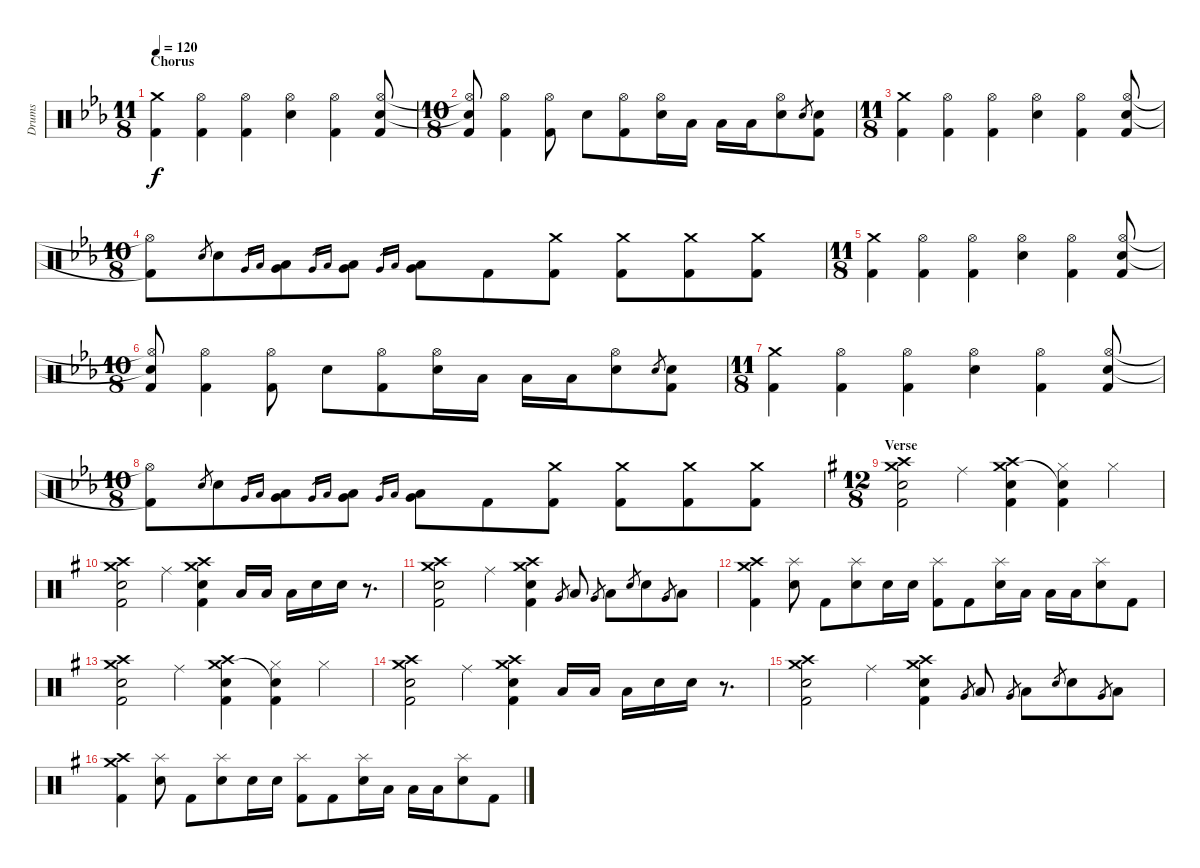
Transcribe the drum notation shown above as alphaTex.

\track ("Drums" "Drums") {instrument percussion}
\staff {score}
\articulation defaults
\ts (11 8)
\section ("" "Chorus")
\tempo 120
\clef neutral
\ks eb
("Crash medium (hit)" "Kick (hit) 2").4{dy f} ("Hi-Hat (open)" "Kick (hit) 2").4 ("Hi-Hat (open)" "Kick (hit) 2").4 ("Hi-Hat (open)" "Electric Snare (hit)").4 ("Hi-Hat (open)" "Kick (hit) 2").4 ("Hi-Hat (open)" "Electric Snare (hit)" "Kick (hit) 2").8 |
\ts (10 8)
("Hi-Hat (open)"{t} "Snare (hit)"{t} "Kick (hit) 2").8 ("Hi-Hat (open)" "Kick (hit) 2").4 ("Hi-Hat (open)" "Kick (hit) 2").8 "Electric Snare (hit)".8 ("Hi-Hat (open)" "Kick (hit) 2").8 ("Hi-Hat (open)" "Electric Snare (hit)").16 "Low Tom (hit)".16 "Low Tom (hit)".16 "Low Tom (hit)".16 ("Hi-Hat (open)" "Electric Snare (hit)").8 "Electric Snare (hit)".8{gr} ("Electric Snare (hit)" "Kick (hit) 2").8 |
\ts (11 8)
("Crash medium (hit)" "Kick (hit) 2").4 ("Hi-Hat (open)" "Kick (hit) 2").4 ("Hi-Hat (open)" "Kick (hit) 2").4 ("Hi-Hat (open)" "Electric Snare (hit)").4 ("Hi-Hat (open)" "Kick (hit) 2").4 ("Hi-Hat (open)" "Electric Snare (hit)" "Kick (hit) 2").8 |
\ts (10 8)
("Hi-Hat (open)"{t} "Kick (hit) 2"{t}).8 "Electric Snare (hit)".8{gr} "Electric Snare (hit)".8 "Very Low Tom (hit)".16{gr} "Low Tom (hit)".16{gr} ("Low Tom (hit)" "Very Low Tom (hit)").8 "Very Low Tom (hit)".16{gr} "Low Tom (hit)".16{gr} ("Low Tom (hit)" "Very Low Tom (hit)").8 "Very Low Tom (hit)".16{gr} "Low Tom (hit)".16{gr} ("Low Tom (hit)" "Very Low Tom (hit)").8 "Kick (hit) 2".8 ("Crash medium (hit)" "Kick (hit) 2").8 ("Crash medium (hit)" "Kick (hit) 2").8 ("Crash medium (hit)" "Kick (hit) 2").8 ("Crash medium (hit)" "Kick (hit) 2").8 |
\ts (11 8)
("Crash medium (hit)" "Kick (hit) 2").4 ("Hi-Hat (open)" "Kick (hit) 2").4 ("Hi-Hat (open)" "Kick (hit) 2").4 ("Hi-Hat (open)" "Electric Snare (hit)").4 ("Hi-Hat (open)" "Kick (hit) 2").4 ("Hi-Hat (open)" "Electric Snare (hit)" "Kick (hit) 2").8 |
\ts (10 8)
("Hi-Hat (open)"{t} "Snare (hit)"{t} "Kick (hit) 2").8 ("Hi-Hat (open)" "Kick (hit) 2").4 ("Hi-Hat (open)" "Kick (hit) 2").8 "Electric Snare (hit)".8 ("Hi-Hat (open)" "Kick (hit) 2").8 ("Hi-Hat (open)" "Electric Snare (hit)").16 "Low Tom (hit)".16 "Low Tom (hit)".16 "Low Tom (hit)".16 ("Hi-Hat (open)" "Electric Snare (hit)").8 "Electric Snare (hit)".8{gr} ("Electric Snare (hit)" "Kick (hit) 2").8 |
\ts (11 8)
("Crash medium (hit)" "Kick (hit) 2").4 ("Hi-Hat (open)" "Kick (hit) 2").4 ("Hi-Hat (open)" "Kick (hit) 2").4 ("Hi-Hat (open)" "Electric Snare (hit)").4 ("Hi-Hat (open)" "Kick (hit) 2").4 ("Hi-Hat (open)" "Electric Snare (hit)" "Kick (hit) 2").8 |
\ts (10 8)
("Hi-Hat (open)"{t} "Kick (hit) 2"{t}).8 "Electric Snare (hit)".8{gr} "Electric Snare (hit)".8 "Very Low Tom (hit)".16{gr} "Low Tom (hit)".16{gr} ("Low Tom (hit)" "Very Low Tom (hit)").8 "Very Low Tom (hit)".16{gr} "Low Tom (hit)".16{gr} ("Low Tom (hit)" "Very Low Tom (hit)").8 "Very Low Tom (hit)".16{gr} "Low Tom (hit)".16{gr} ("Low Tom (hit)" "Very Low Tom (hit)").8 "Kick (hit) 2".8 ("Crash medium (hit)" "Kick (hit) 2").8 ("Crash medium (hit)" "Kick (hit) 2").8 ("Crash medium (hit)" "Kick (hit) 2").8 ("Crash medium (hit)" "Kick (hit) 2").8 |
\ts (12 8)
\section ("" "Verse")
\ks g
("Crash high (hit)" "Crash medium (hit)" "Electric Snare (hit)" "Kick (hit) 2").2 "Ride (middle)".4 ("Crash high (hit)" "Crash medium (hit)" "Electric Snare (hit)" "Kick (hit) 2").4 ("Hi-Hat (closed)" "Electric Snare (hit)"{t} "Kick (hit) 2").4 "Hi-Hat (closed)".4 |
("Crash high (hit)" "Crash medium (hit)" "Electric Snare (hit)" "Kick (hit) 2").2 "Ride (middle)".4 ("Crash high (hit)" "Crash medium (hit)" "Electric Snare (hit)" "Kick (hit) 2").4 "Low Tom (hit)".16 "Low Tom (hit)".16 "Low Tom (hit)".16 "Electric Snare (hit)".16 "Electric Snare (hit)".16 r.8{d} |
("Crash high (hit)" "Crash medium (hit)" "Electric Snare (hit)" "Kick (hit) 2").2 "Ride (middle)".4 ("Crash high (hit)" "Crash medium (hit)" "Electric Snare (hit)" "Kick (hit) 2").4 "Very Low Tom (hit)".8{gr} "Low Tom (hit)".8 "Very Low Tom (hit)".8{gr} "Low Tom (hit)".8 "Electric Snare (hit)".8{gr} "Electric Snare (hit)".8 "Very Low Tom (hit)".8{gr} "Low Tom (hit)".8 |
("Crash medium (hit)" "Crash high (hit)" "Kick (hit) 2").4 ("Splash (hit)" "Electric Snare (hit)").8 "Kick (hit) 2".8 ("Splash (hit)" "Electric Snare (hit)").8 "Electric Snare (hit)".16 "Electric Snare (hit)".16 ("Splash (hit)" "Kick (hit) 2").8 "Kick (hit) 2".8 ("Splash (hit)" "Electric Snare (hit)").16 "Low Tom (hit)".16 "Low Tom (hit)".16 "Low Tom (hit)".16 ("Splash (hit)" "Electric Snare (hit)").8 "Kick (hit) 2".8 |
("Crash high (hit)" "Crash medium (hit)" "Electric Snare (hit)" "Kick (hit) 2").2 "Ride (middle)".4 ("Crash high (hit)" "Crash medium (hit)" "Electric Snare (hit)" "Kick (hit) 2").4 ("Hi-Hat (closed)" "Electric Snare (hit)"{t} "Kick (hit) 2").4 "Hi-Hat (closed)".4 |
("Crash high (hit)" "Crash medium (hit)" "Electric Snare (hit)" "Kick (hit) 2").2 "Ride (middle)".4 ("Crash high (hit)" "Crash medium (hit)" "Electric Snare (hit)" "Kick (hit) 2").4 "Low Tom (hit)".16 "Low Tom (hit)".16 "Low Tom (hit)".16 "Electric Snare (hit)".16 "Electric Snare (hit)".16 r.8{d} |
("Crash high (hit)" "Crash medium (hit)" "Electric Snare (hit)" "Kick (hit) 2").2 "Ride (middle)".4 ("Crash high (hit)" "Crash medium (hit)" "Electric Snare (hit)" "Kick (hit) 2").4 "Very Low Tom (hit)".8{gr} "Low Tom (hit)".8 "Very Low Tom (hit)".8{gr} "Low Tom (hit)".8 "Electric Snare (hit)".8{gr} "Electric Snare (hit)".8 "Very Low Tom (hit)".8{gr} "Low Tom (hit)".8 |
("Crash medium (hit)" "Crash high (hit)" "Kick (hit) 2").4 ("Splash (hit)" "Electric Snare (hit)").8 "Kick (hit) 2".8 ("Splash (hit)" "Electric Snare (hit)").8 "Electric Snare (hit)".16 "Electric Snare (hit)".16 ("Splash (hit)" "Kick (hit) 2").8 "Kick (hit) 2".8 ("Splash (hit)" "Electric Snare (hit)").16 "Low Tom (hit)".16 "Low Tom (hit)".16 "Low Tom (hit)".16 ("Splash (hit)" "Electric Snare (hit)").8 "Kick (hit) 2".8
